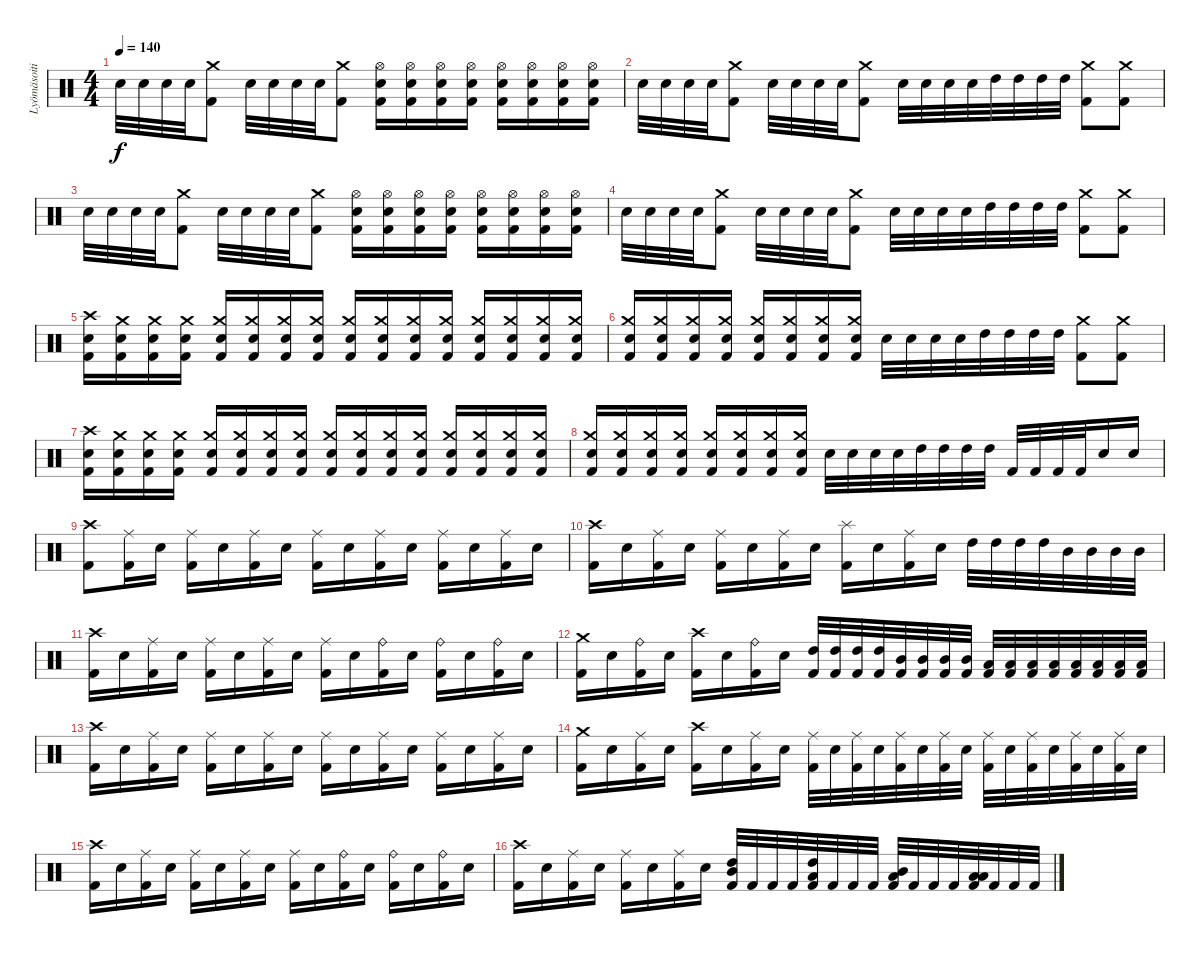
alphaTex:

\track ("Lyömäsoitin" "Lyömäsoiti") {instrument percussion}
\staff {score}
\articulation defaults
\ts (4 4)
\tempo 140
\clef neutral
\ks c "Snare (hit) 2".32{dy f} "Snare (hit) 2".32 "Snare (hit) 2".32 "Snare (hit) 2".32
("Crash medium (hit)" "Kick (hit) 2").8 "Snare (hit) 2".32 "Snare (hit) 2".32 "Snare (hit) 2".32 "Snare (hit) 2".32 ("Crash medium (hit)" "Kick (hit) 2").8 ("Hi-Hat (open)" "Snare (hit) 2" "Kick (hit) 2").16 ("Hi-Hat (open)" "Snare (hit) 2" "Kick (hit) 2").16 ("Hi-Hat (open)" "Snare (hit) 2" "Kick (hit) 2").16 ("Hi-Hat (open)" "Snare (hit) 2" "Kick (hit) 2").16 ("Hi-Hat (open)" "Snare (hit) 2" "Kick (hit) 2").16 ("Hi-Hat (open)" "Snare (hit) 2" "Kick (hit) 2").16 ("Hi-Hat (open)" "Snare (hit) 2" "Kick (hit) 2").16 ("Hi-Hat (open)" "Snare (hit) 2" "Kick (hit) 2").16 |
"Snare (hit) 2".32 "Snare (hit) 2".32 "Snare (hit) 2".32 "Snare (hit) 2".32 ("Crash medium (hit)" "Kick (hit) 2").8 "Snare (hit) 2".32 "Snare (hit) 2".32 "Snare (hit) 2".32 "Snare (hit) 2".32 ("Crash medium (hit)" "Kick (hit) 2").8 "Snare (hit) 2".32 "Snare (hit) 2".32 "Snare (hit) 2".32 "Snare (hit) 2".32 "High Tom (hit)".32 "High Tom (hit)".32 "High Tom (hit)".32 "High Tom (hit)".32 ("Crash medium (hit)" "Kick (hit) 2").8 ("Crash medium (hit)" "Kick (hit) 2").8 |
"Snare (hit) 2".32 "Snare (hit) 2".32 "Snare (hit) 2".32 "Snare (hit) 2".32 ("Crash medium (hit)" "Kick (hit) 2").8 "Snare (hit) 2".32 "Snare (hit) 2".32 "Snare (hit) 2".32 "Snare (hit) 2".32 ("Crash medium (hit)" "Kick (hit) 2").8 ("Hi-Hat (open)" "Snare (hit) 2" "Kick (hit) 2").16 ("Hi-Hat (open)" "Snare (hit) 2" "Kick (hit) 2").16 ("Hi-Hat (open)" "Snare (hit) 2" "Kick (hit) 2").16 ("Hi-Hat (open)" "Snare (hit) 2" "Kick (hit) 2").16 ("Hi-Hat (open)" "Snare (hit) 2" "Kick (hit) 2").16 ("Hi-Hat (open)" "Snare (hit) 2" "Kick (hit) 2").16 ("Hi-Hat (open)" "Snare (hit) 2" "Kick (hit) 2").16 ("Hi-Hat (open)" "Snare (hit) 2" "Kick (hit) 2").16 |
"Snare (hit) 2".32 "Snare (hit) 2".32 "Snare (hit) 2".32 "Snare (hit) 2".32 ("Crash medium (hit)" "Kick (hit) 2").8 "Snare (hit) 2".32 "Snare (hit) 2".32 "Snare (hit) 2".32 "Snare (hit) 2".32 ("Crash medium (hit)" "Kick (hit) 2").8 "Snare (hit) 2".32 "Snare (hit) 2".32 "Snare (hit) 2".32 "Snare (hit) 2".32 "High Tom (hit)".32 "High Tom (hit)".32 "High Tom (hit)".32 "High Tom (hit)".32 ("Crash medium (hit)" "Kick (hit) 2").8 ("Crash medium (hit)" "Kick (hit) 2").8 |
("Crash high (hit)" "Snare (hit) 2" "Kick (hit) 2").16 ("Crash medium (hit)" "Snare (hit) 2" "Kick (hit) 2").16 ("Crash medium (hit)" "Snare (hit) 2" "Kick (hit) 2").16 ("Crash medium (hit)" "Snare (hit) 2" "Kick (hit) 2").16 ("Crash medium (hit)" "Snare (hit) 2" "Kick (hit) 2").16 ("Crash medium (hit)" "Snare (hit) 2" "Kick (hit) 2").16 ("Crash medium (hit)" "Snare (hit) 2" "Kick (hit) 2").16 ("Crash medium (hit)" "Snare (hit) 2" "Kick (hit) 2").16 ("Crash medium (hit)" "Snare (hit) 2" "Kick (hit) 2").16 ("Crash medium (hit)" "Snare (hit) 2" "Kick (hit) 2").16 ("Crash medium (hit)" "Snare (hit) 2" "Kick (hit) 2").16 ("Crash medium (hit)" "Snare (hit) 2" "Kick (hit) 2").16 ("Crash medium (hit)" "Snare (hit) 2" "Kick (hit) 2").16 ("Crash medium (hit)" "Snare (hit) 2" "Kick (hit) 2").16 ("Crash medium (hit)" "Snare (hit) 2" "Kick (hit) 2").16 ("Crash medium (hit)" "Snare (hit) 2" "Kick (hit) 2").16 |
("Crash medium (hit)" "Snare (hit) 2" "Kick (hit) 2").16 ("Crash medium (hit)" "Snare (hit) 2" "Kick (hit) 2").16 ("Crash medium (hit)" "Snare (hit) 2" "Kick (hit) 2").16 ("Crash medium (hit)" "Snare (hit) 2" "Kick (hit) 2").16 ("Crash medium (hit)" "Snare (hit) 2" "Kick (hit) 2").16 ("Crash medium (hit)" "Snare (hit) 2" "Kick (hit) 2").16 ("Crash medium (hit)" "Snare (hit) 2" "Kick (hit) 2").16 ("Crash medium (hit)" "Snare (hit) 2" "Kick (hit) 2").16 "Snare (hit) 2".32 "Snare (hit) 2".32 "Snare (hit) 2".32 "Snare (hit) 2".32 "High Tom (hit)".32 "High Tom (hit)".32 "High Tom (hit)".32 "High Tom (hit)".32 ("Crash medium (hit)" "Kick (hit) 2").8 ("Crash medium (hit)" "Kick (hit) 2").8 |
("Crash high (hit)" "Snare (hit) 2" "Kick (hit) 2").16 ("Crash medium (hit)" "Snare (hit) 2" "Kick (hit) 2").16 ("Crash medium (hit)" "Snare (hit) 2" "Kick (hit) 2").16 ("Crash medium (hit)" "Snare (hit) 2" "Kick (hit) 2").16 ("Crash medium (hit)" "Snare (hit) 2" "Kick (hit) 2").16 ("Crash medium (hit)" "Snare (hit) 2" "Kick (hit) 2").16 ("Crash medium (hit)" "Snare (hit) 2" "Kick (hit) 2").16 ("Crash medium (hit)" "Snare (hit) 2" "Kick (hit) 2").16 ("Crash medium (hit)" "Snare (hit) 2" "Kick (hit) 2").16 ("Crash medium (hit)" "Snare (hit) 2" "Kick (hit) 2").16 ("Crash medium (hit)" "Snare (hit) 2" "Kick (hit) 2").16 ("Crash medium (hit)" "Snare (hit) 2" "Kick (hit) 2").16 ("Crash medium (hit)" "Snare (hit) 2" "Kick (hit) 2").16 ("Crash medium (hit)" "Snare (hit) 2" "Kick (hit) 2").16 ("Crash medium (hit)" "Snare (hit) 2" "Kick (hit) 2").16 ("Crash medium (hit)" "Snare (hit) 2" "Kick (hit) 2").16 |
("Crash medium (hit)" "Snare (hit) 2" "Kick (hit) 2").16 ("Crash medium (hit)" "Snare (hit) 2" "Kick (hit) 2").16 ("Crash medium (hit)" "Snare (hit) 2" "Kick (hit) 2").16 ("Crash medium (hit)" "Snare (hit) 2" "Kick (hit) 2").16 ("Crash medium (hit)" "Snare (hit) 2" "Kick (hit) 2").16 ("Crash medium (hit)" "Snare (hit) 2" "Kick (hit) 2").16 ("Crash medium (hit)" "Snare (hit) 2" "Kick (hit) 2").16 ("Crash medium (hit)" "Snare (hit) 2" "Kick (hit) 2").16 "Snare (hit) 2".32 "Snare (hit) 2".32 "Snare (hit) 2".32 "Snare (hit) 2".32 "High Tom (hit)".32 "High Tom (hit)".32 "High Tom (hit)".32 "High Tom (hit)".32 "Kick (hit) 2".32 "Kick (hit) 2".32 "Kick (hit) 2".32 "Kick (hit) 2".32 "Snare (hit) 2".16 "Snare (hit) 2".16 |
("Crash high (hit)" "Kick (hit) 2").8 ("Ride (middle)" "Kick (hit) 2").16 "Snare (hit) 2".16 ("Ride (middle)" "Kick (hit) 2").16 "Snare (hit) 2".16 ("Ride (middle)" "Kick (hit) 2").16 "Snare (hit) 2".16 ("Ride (middle)" "Kick (hit) 2").16 "Snare (hit) 2".16 ("Ride (middle)" "Kick (hit) 2").16 "Snare (hit) 2".16 ("Ride (middle)" "Kick (hit) 2").16 "Snare (hit) 2".16 ("Ride (middle)" "Kick (hit) 2").16 "Snare (hit) 2".16 |
("Crash high (hit)" "Kick (hit) 2").16 "Snare (hit) 2".16 ("Ride (middle)" "Kick (hit) 2").16 "Snare (hit) 2".16 ("Ride (middle)" "Kick (hit) 2").16 "Snare (hit) 2".16 ("Ride (middle)" "Kick (hit) 2").16 "Snare (hit) 2".16 ("Splash (hit)" "Kick (hit) 2").16 "Snare (hit) 2".16 ("Ride (middle)" "Kick (hit) 2").16 "Snare (hit) 2".16 "High Tom (hit)".32 "High Tom (hit)".32 "High Tom (hit)".32 "High Tom (hit)".32 "Mid Tom (hit)".32 "Mid Tom (hit)".32 "Mid Tom (hit)".32 "Mid Tom (hit)".32 |
("Crash high (hit)" "Kick (hit) 2").16 "Snare (hit) 2".16 ("Ride (middle)" "Kick (hit) 2").16 "Snare (hit) 2".16 ("Ride (middle)" "Kick (hit) 2").16 "Snare (hit) 2".16 ("Ride (middle)" "Kick (hit) 2").16 "Snare (hit) 2".16 ("Ride (middle)" "Kick (hit) 2").16 "Snare (hit) 2".16 ("Ride (bell)" "Kick (hit) 2").16 "Snare (hit) 2".16 ("Ride (bell)" "Kick (hit) 2").16 "Snare (hit) 2".16 ("Ride (bell)" "Kick (hit) 2").16 "Snare (hit) 2".16 |
("Crash medium (hit)" "Kick (hit) 2").16 "Snare (hit) 2".16 ("Ride (bell)" "Kick (hit) 2").16 "Snare (hit) 2".16 ("Crash high (hit)" "Kick (hit) 2").16 "Snare (hit) 2".16 ("Ride (bell)" "Kick (hit) 2").16 "Snare (hit) 2".16 ("High Tom (hit)" "Kick (hit) 2").32 ("High Tom (hit)" "Kick (hit) 2").32 ("High Tom (hit)" "Kick (hit) 2").32 ("High Tom (hit)" "Kick (hit) 2").32 ("Mid Tom (hit)" "Kick (hit) 2").32 ("Mid Tom (hit)" "Kick (hit) 2").32 ("Mid Tom (hit)" "Kick (hit) 2").32 ("Mid Tom (hit)" "Kick (hit) 2").32 ("Low Tom (hit)" "Kick (hit) 2").32 ("Low Tom (hit)" "Kick (hit) 2").32 ("Low Tom (hit)" "Kick (hit) 2").32 ("Low Tom (hit)" "Kick (hit) 2").32 ("Low Floor Tom (hit)" "Kick (hit) 2").32 ("Low Floor Tom (hit)" "Kick (hit) 2").32 ("Low Floor Tom (hit)" "Kick (hit) 2").32 ("Low Floor Tom (hit)" "Kick (hit) 2").32 |
("Crash high (hit)" "Kick (hit) 2").16 "Snare (hit) 2".16 ("Ride (middle)" "Kick (hit) 2").16 "Snare (hit) 2".16 ("Ride (middle)" "Kick (hit) 2").16 "Snare (hit) 2".16 ("Ride (middle)" "Kick (hit) 2").16 "Snare (hit) 2".16 ("Ride (middle)" "Kick (hit) 2").16 "Snare (hit) 2".16 ("Ride (middle)" "Kick (hit) 2").16 "Snare (hit) 2".16 ("Ride (middle)" "Kick (hit) 2").16 "Snare (hit) 2".16 ("Ride (middle)" "Kick (hit) 2").16 "Snare (hit) 2".16 |
("Crash medium (hit)" "Kick (hit) 2").16 "Snare (hit) 2".16 ("Ride (middle)" "Kick (hit) 2").16 "Snare (hit) 2".16 ("Crash high (hit)" "Kick (hit) 2").16 "Snare (hit) 2".16 ("Ride (middle)" "Kick (hit) 2").16 "Snare (hit) 2".16 ("Ride (middle)" "Kick (hit) 2").32 "Snare (hit) 2".32 ("Ride (middle)" "Kick (hit) 2").32 "Snare (hit) 2".32 ("Ride (middle)" "Kick (hit) 2").32 "Snare (hit) 2".32 ("Ride (middle)" "Kick (hit) 2").32 "Snare (hit) 2".32 ("Ride (middle)" "Kick (hit) 2").32 "Snare (hit) 2".32 ("Ride (middle)" "Kick (hit) 2").32 "Snare (hit) 2".32 ("Ride (middle)" "Kick (hit) 2").32 "Snare (hit) 2".32 ("Ride (middle)" "Kick (hit) 2").32 "Snare (hit) 2".32 |
("Crash high (hit)" "Kick (hit) 2").16 "Snare (hit) 2".16 ("Ride (middle)" "Kick (hit) 2").16 "Snare (hit) 2".16 ("Ride (middle)" "Kick (hit) 2").16 "Snare (hit) 2".16 ("Ride (middle)" "Kick (hit) 2").16 "Snare (hit) 2".16 ("Ride (middle)" "Kick (hit) 2").16 "Snare (hit) 2".16 ("Ride (bell)" "Kick (hit) 2").16 "Snare (hit) 2".16 ("Ride (bell)" "Kick (hit) 2").16 "Snare (hit) 2".16 ("Ride (bell)" "Kick (hit) 2").16 "Snare (hit) 2".16 |
("Crash high (hit)" "Kick (hit) 2").16 "Snare (hit) 2".16 ("Ride (middle)" "Kick (hit) 2").16 "Snare (hit) 2".16 ("Ride (middle)" "Kick (hit) 2").16 "Snare (hit) 2".16 ("Ride (middle)" "Kick (hit) 2").16 "Snare (hit) 2".16 ("Mid Tom (hit)" "High Tom (hit)" "Kick (hit) 2").32 "Kick (hit) 2".32 "Kick (hit) 2".32 "Kick (hit) 2".32 ("High Tom (hit)" "Low Floor Tom (hit)" "Kick (hit) 2").32 "Kick (hit) 2".32 "Kick (hit) 2".32 "Kick (hit) 2".32 ("Mid Tom (hit)" "Low Floor Tom (hit)" "Kick (hit) 2").32 "Kick (hit) 2".32 "Kick (hit) 2".32 "Kick (hit) 2".32 ("Low Tom (hit)" "Low Floor Tom (hit)" "Kick (hit) 2").32 "Kick (hit) 2".32 "Kick (hit) 2".32 "Kick (hit) 2".32
